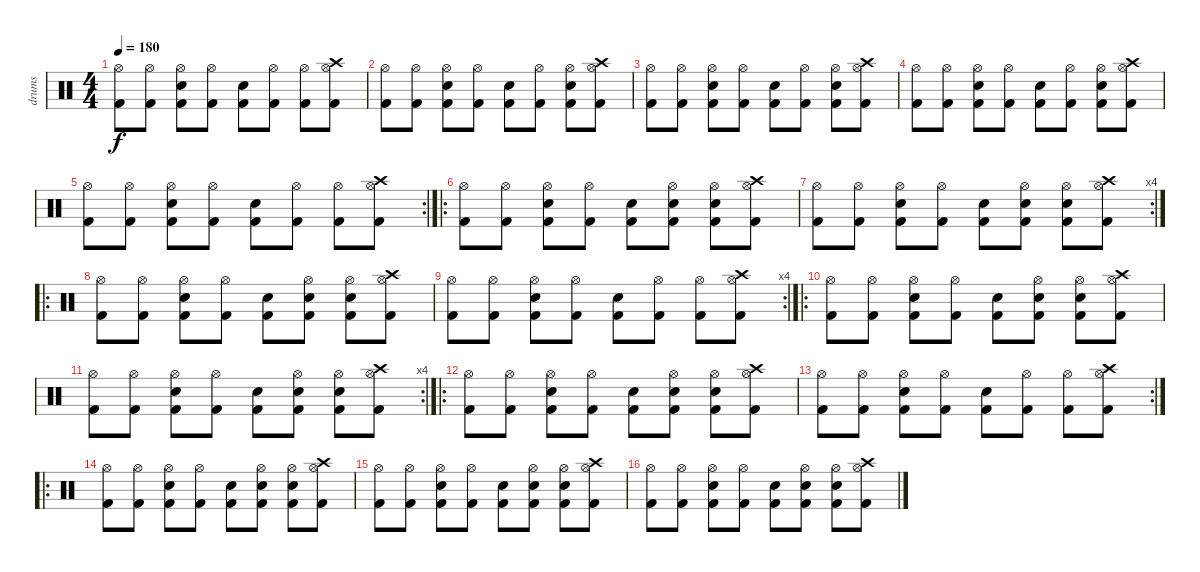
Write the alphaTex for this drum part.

\track ("drums" "drums") {instrument percussion}
\staff {score}
\articulation defaults
\ts (4 4)
\tempo 180
\clef neutral
\ks c
("Hi-Hat (open)" "Kick (hit) 2").8{dy f} ("Hi-Hat (open)" "Kick (hit) 2").8 ("Snare (hit) 2" "Hi-Hat (open)" "Kick (hit) 2").8 ("Hi-Hat (open)" "Kick (hit) 2").8 ("Snare (hit) 2" "Kick (hit) 2").8 ("Hi-Hat (open)" "Kick (hit) 2").8 ("Hi-Hat (open)" "Kick (hit) 2").8 ("Crash high (hit)" "Hi-Hat (open)" "Kick (hit) 2").8 |
("Hi-Hat (open)" "Kick (hit) 2").8 ("Hi-Hat (open)" "Kick (hit) 2").8 ("Snare (hit) 2" "Hi-Hat (open)" "Kick (hit) 2").8 ("Hi-Hat (open)" "Kick (hit) 2").8 ("Snare (hit) 2" "Kick (hit) 2").8 ("Hi-Hat (open)" "Kick (hit) 2").8 ("Snare (hit) 2" "Hi-Hat (open)" "Kick (hit) 2").8 ("Crash high (hit)" "Hi-Hat (open)" "Kick (hit) 2").8 |
("Hi-Hat (open)" "Kick (hit) 2").8 ("Hi-Hat (open)" "Kick (hit) 2").8 ("Snare (hit) 2" "Hi-Hat (open)" "Kick (hit) 2").8 ("Hi-Hat (open)" "Kick (hit) 2").8 ("Snare (hit) 2" "Kick (hit) 2").8 ("Hi-Hat (open)" "Kick (hit) 2").8 ("Snare (hit) 2" "Hi-Hat (open)" "Kick (hit) 2").8 ("Crash high (hit)" "Hi-Hat (open)" "Kick (hit) 2").8 |
("Hi-Hat (open)" "Kick (hit) 2").8 ("Hi-Hat (open)" "Kick (hit) 2").8 ("Snare (hit) 2" "Hi-Hat (open)" "Kick (hit) 2").8 ("Hi-Hat (open)" "Kick (hit) 2").8 ("Snare (hit) 2" "Kick (hit) 2").8 ("Hi-Hat (open)" "Kick (hit) 2").8 ("Snare (hit) 2" "Hi-Hat (open)" "Kick (hit) 2").8 ("Crash high (hit)" "Hi-Hat (open)" "Kick (hit) 2").8 |
\rc 2
("Hi-Hat (open)" "Kick (hit) 2").8 ("Hi-Hat (open)" "Kick (hit) 2").8 ("Snare (hit) 2" "Hi-Hat (open)" "Kick (hit) 2").8 ("Hi-Hat (open)" "Kick (hit) 2").8 ("Snare (hit) 2" "Kick (hit) 2").8 ("Hi-Hat (open)" "Kick (hit) 2").8 ("Hi-Hat (open)" "Kick (hit) 2").8 ("Crash high (hit)" "Hi-Hat (open)" "Kick (hit) 2").8 |
\ro
("Hi-Hat (open)" "Kick (hit) 2").8 ("Hi-Hat (open)" "Kick (hit) 2").8 ("Snare (hit) 2" "Hi-Hat (open)" "Kick (hit) 2").8 ("Hi-Hat (open)" "Kick (hit) 2").8 ("Snare (hit) 2" "Kick (hit) 2").8 ("Snare (hit) 2" "Hi-Hat (open)" "Kick (hit) 2").8 ("Snare (hit) 2" "Hi-Hat (open)" "Kick (hit) 2").8 ("Crash high (hit)" "Hi-Hat (open)" "Kick (hit) 2").8 |
\rc 4
("Hi-Hat (open)" "Kick (hit) 2").8 ("Hi-Hat (open)" "Kick (hit) 2").8 ("Snare (hit) 2" "Hi-Hat (open)" "Kick (hit) 2").8 ("Hi-Hat (open)" "Kick (hit) 2").8 ("Snare (hit) 2" "Kick (hit) 2").8 ("Snare (hit) 2" "Hi-Hat (open)" "Kick (hit) 2").8 ("Snare (hit) 2" "Hi-Hat (open)" "Kick (hit) 2").8 ("Crash high (hit)" "Hi-Hat (open)" "Kick (hit) 2").8 |
\ro
("Hi-Hat (open)" "Kick (hit) 2").8 ("Hi-Hat (open)" "Kick (hit) 2").8 ("Snare (hit) 2" "Hi-Hat (open)" "Kick (hit) 2").8 ("Hi-Hat (open)" "Kick (hit) 2").8 ("Snare (hit) 2" "Kick (hit) 2").8 ("Snare (hit) 2" "Hi-Hat (open)" "Kick (hit) 2").8 ("Snare (hit) 2" "Hi-Hat (open)" "Kick (hit) 2").8 ("Crash high (hit)" "Hi-Hat (open)" "Kick (hit) 2").8 |
\rc 4
("Hi-Hat (open)" "Kick (hit) 2").8 ("Hi-Hat (open)" "Kick (hit) 2").8 ("Snare (hit) 2" "Hi-Hat (open)" "Kick (hit) 2").8 ("Hi-Hat (open)" "Kick (hit) 2").8 ("Snare (hit) 2" "Kick (hit) 2").8 ("Hi-Hat (open)" "Kick (hit) 2").8 ("Hi-Hat (open)" "Kick (hit) 2").8 ("Crash high (hit)" "Hi-Hat (open)" "Kick (hit) 2").8 |
\ro
("Hi-Hat (open)" "Kick (hit) 2").8 ("Hi-Hat (open)" "Kick (hit) 2").8 ("Snare (hit) 2" "Hi-Hat (open)" "Kick (hit) 2").8 ("Hi-Hat (open)" "Kick (hit) 2").8 ("Snare (hit) 2" "Kick (hit) 2").8 ("Snare (hit) 2" "Hi-Hat (open)" "Kick (hit) 2").8 ("Snare (hit) 2" "Hi-Hat (open)" "Kick (hit) 2").8 ("Crash high (hit)" "Hi-Hat (open)" "Kick (hit) 2").8 |
\rc 4
("Hi-Hat (open)" "Kick (hit) 2").8 ("Hi-Hat (open)" "Kick (hit) 2").8 ("Snare (hit) 2" "Hi-Hat (open)" "Kick (hit) 2").8 ("Hi-Hat (open)" "Kick (hit) 2").8 ("Snare (hit) 2" "Kick (hit) 2").8 ("Snare (hit) 2" "Hi-Hat (open)" "Kick (hit) 2").8 ("Snare (hit) 2" "Hi-Hat (open)" "Kick (hit) 2").8 ("Crash high (hit)" "Hi-Hat (open)" "Kick (hit) 2").8 |
\ro
("Hi-Hat (open)" "Kick (hit) 2").8 ("Hi-Hat (open)" "Kick (hit) 2").8 ("Snare (hit) 2" "Hi-Hat (open)" "Kick (hit) 2").8 ("Hi-Hat (open)" "Kick (hit) 2").8 ("Snare (hit) 2" "Kick (hit) 2").8 ("Snare (hit) 2" "Hi-Hat (open)" "Kick (hit) 2").8 ("Snare (hit) 2" "Hi-Hat (open)" "Kick (hit) 2").8 ("Crash high (hit)" "Hi-Hat (open)" "Kick (hit) 2").8 |
\rc 2
("Hi-Hat (open)" "Kick (hit) 2").8 ("Hi-Hat (open)" "Kick (hit) 2").8 ("Snare (hit) 2" "Hi-Hat (open)" "Kick (hit) 2").8 ("Hi-Hat (open)" "Kick (hit) 2").8 ("Snare (hit) 2" "Kick (hit) 2").8 ("Hi-Hat (open)" "Kick (hit) 2").8 ("Hi-Hat (open)" "Kick (hit) 2").8 ("Crash high (hit)" "Hi-Hat (open)" "Kick (hit) 2").8 |
\ro
("Hi-Hat (open)" "Kick (hit) 2").8 ("Hi-Hat (open)" "Kick (hit) 2").8 ("Snare (hit) 2" "Hi-Hat (open)" "Kick (hit) 2").8 ("Hi-Hat (open)" "Kick (hit) 2").8 ("Snare (hit) 2" "Kick (hit) 2").8 ("Snare (hit) 2" "Hi-Hat (open)" "Kick (hit) 2").8 ("Snare (hit) 2" "Hi-Hat (open)" "Kick (hit) 2").8 ("Crash high (hit)" "Hi-Hat (open)" "Kick (hit) 2").8 |
("Hi-Hat (open)" "Kick (hit) 2").8 ("Hi-Hat (open)" "Kick (hit) 2").8 ("Snare (hit) 2" "Hi-Hat (open)" "Kick (hit) 2").8 ("Hi-Hat (open)" "Kick (hit) 2").8 ("Snare (hit) 2" "Kick (hit) 2").8 ("Snare (hit) 2" "Hi-Hat (open)" "Kick (hit) 2").8 ("Snare (hit) 2" "Hi-Hat (open)" "Kick (hit) 2").8 ("Crash high (hit)" "Hi-Hat (open)" "Kick (hit) 2").8 |
("Hi-Hat (open)" "Kick (hit) 2").8 ("Hi-Hat (open)" "Kick (hit) 2").8 ("Snare (hit) 2" "Hi-Hat (open)" "Kick (hit) 2").8 ("Hi-Hat (open)" "Kick (hit) 2").8 ("Snare (hit) 2" "Kick (hit) 2").8 ("Snare (hit) 2" "Hi-Hat (open)" "Kick (hit) 2").8 ("Snare (hit) 2" "Hi-Hat (open)" "Kick (hit) 2").8 ("Crash high (hit)" "Hi-Hat (open)" "Kick (hit) 2").8
